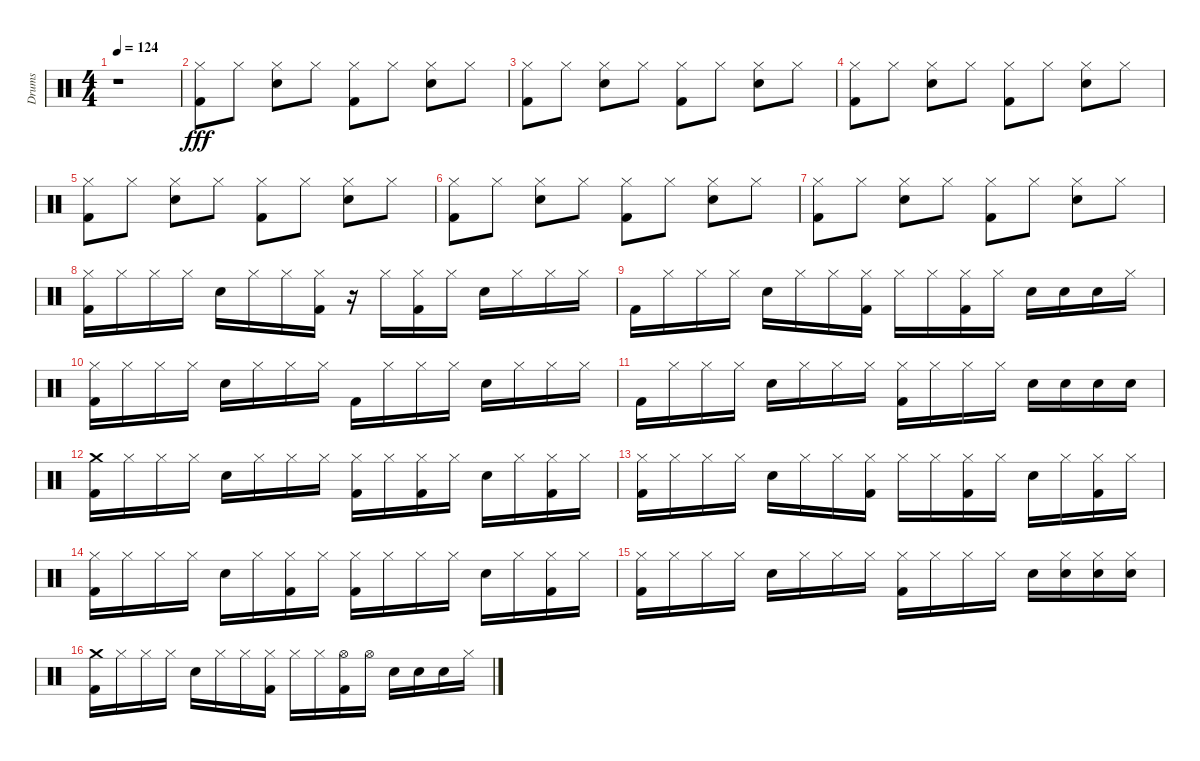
\track ("Drums" "Drums") {instrument percussion}
\staff {score}
\articulation defaults
\ts (4 4)
\tempo 124
\clef neutral
\ks c
r.1{dy fff} |
("Hi-Hat (closed)" "Kick (hit) 2").8 "Hi-Hat (closed)".8 ("Hi-Hat (closed)" "Snare (hit) 2").8 "Hi-Hat (closed)".8 ("Hi-Hat (closed)" "Kick (hit) 2").8 "Hi-Hat (closed)".8 ("Hi-Hat (closed)" "Snare (hit) 2").8 "Hi-Hat (closed)".8 |
("Hi-Hat (closed)" "Kick (hit) 2").8 "Hi-Hat (closed)".8 ("Hi-Hat (closed)" "Snare (hit) 2").8 "Hi-Hat (closed)".8 ("Hi-Hat (closed)" "Kick (hit) 2").8 "Hi-Hat (closed)".8 ("Hi-Hat (closed)" "Snare (hit) 2").8 "Hi-Hat (closed)".8 |
("Hi-Hat (closed)" "Kick (hit) 2").8 "Hi-Hat (closed)".8 ("Hi-Hat (closed)" "Snare (hit) 2").8 "Hi-Hat (closed)".8 ("Hi-Hat (closed)" "Kick (hit) 2").8 "Hi-Hat (closed)".8 ("Hi-Hat (closed)" "Snare (hit) 2").8 "Hi-Hat (closed)".8 |
("Hi-Hat (closed)" "Kick (hit) 2").8 "Hi-Hat (closed)".8 ("Hi-Hat (closed)" "Snare (hit) 2").8 "Hi-Hat (closed)".8 ("Hi-Hat (closed)" "Kick (hit) 2").8 "Hi-Hat (closed)".8 ("Hi-Hat (closed)" "Snare (hit) 2").8 "Hi-Hat (closed)".8 |
("Hi-Hat (closed)" "Kick (hit) 2").8 "Hi-Hat (closed)".8 ("Hi-Hat (closed)" "Snare (hit) 2").8 "Hi-Hat (closed)".8 ("Hi-Hat (closed)" "Kick (hit) 2").8 "Hi-Hat (closed)".8 ("Hi-Hat (closed)" "Snare (hit) 2").8 "Hi-Hat (closed)".8 |
("Hi-Hat (closed)" "Kick (hit) 2").8 "Hi-Hat (closed)".8 ("Hi-Hat (closed)" "Snare (hit) 2").8 "Hi-Hat (closed)".8 ("Hi-Hat (closed)" "Kick (hit) 2").8 "Hi-Hat (closed)".8 ("Hi-Hat (closed)" "Snare (hit) 2").8 "Hi-Hat (closed)".8 |
("Hi-Hat (closed)" "Kick (hit) 2").16 "Hi-Hat (closed)".16 "Hi-Hat (closed)".16 "Hi-Hat (closed)".16 "Snare (hit) 2".16 "Hi-Hat (closed)".16 "Hi-Hat (closed)".16 ("Hi-Hat (closed)" "Kick (hit) 2").16 r.16 "Hi-Hat (closed)".16 ("Hi-Hat (closed)" "Kick (hit) 2").16 "Hi-Hat (closed)".16 "Snare (hit) 2".16 "Hi-Hat (closed)".16 "Hi-Hat (closed)".16 "Hi-Hat (closed)".16 |
"Kick (hit) 2".16 "Hi-Hat (closed)".16 "Hi-Hat (closed)".16 "Hi-Hat (closed)".16 "Snare (hit) 2".16 "Hi-Hat (closed)".16 "Hi-Hat (closed)".16 ("Hi-Hat (closed)" "Kick (hit) 2").16 "Hi-Hat (closed)".16 "Hi-Hat (closed)".16 ("Hi-Hat (closed)" "Kick (hit) 2").16 "Hi-Hat (closed)".16 "Snare (hit) 2".16 "Snare (hit) 2".16 "Snare (hit) 2".16 "Hi-Hat (closed)".16 |
("Hi-Hat (closed)" "Kick (hit) 2").16 "Hi-Hat (closed)".16 "Hi-Hat (closed)".16 "Hi-Hat (closed)".16 "Snare (hit) 2".16 "Hi-Hat (closed)".16 "Hi-Hat (closed)".16 "Hi-Hat (closed)".16 "Kick (hit) 2".16 "Hi-Hat (closed)".16 "Hi-Hat (closed)".16 "Hi-Hat (closed)".16 "Snare (hit) 2".16 "Hi-Hat (closed)".16 "Hi-Hat (closed)".16 "Hi-Hat (closed)".16 |
"Kick (hit) 2".16 "Hi-Hat (closed)".16 "Hi-Hat (closed)".16 "Hi-Hat (closed)".16 "Snare (hit) 2".16 "Hi-Hat (closed)".16 "Hi-Hat (closed)".16 "Hi-Hat (closed)".16 ("Hi-Hat (closed)" "Kick (hit) 2").16 "Hi-Hat (closed)".16 "Hi-Hat (closed)".16 "Hi-Hat (closed)".16 "Snare (hit) 2".16 "Snare (hit) 2".16 "Snare (hit) 2".16 "Snare (hit) 2".16 |
("Crash medium (hit)" "Kick (hit) 2").16 "Hi-Hat (closed)".16 "Hi-Hat (closed)".16 "Hi-Hat (closed)".16 "Snare (hit) 2".16 "Hi-Hat (closed)".16 "Hi-Hat (closed)".16 "Hi-Hat (closed)".16 ("Hi-Hat (closed)" "Kick (hit) 2").16 "Hi-Hat (closed)".16 ("Hi-Hat (closed)" "Kick (hit) 2").16 "Hi-Hat (closed)".16 "Snare (hit) 2".16 "Hi-Hat (closed)".16 ("Hi-Hat (closed)" "Kick (hit) 2").16 "Hi-Hat (closed)".16 |
("Hi-Hat (closed)" "Kick (hit) 2").16 "Hi-Hat (closed)".16 "Hi-Hat (closed)".16 "Hi-Hat (closed)".16 "Snare (hit) 2".16 "Hi-Hat (closed)".16 "Hi-Hat (closed)".16 ("Hi-Hat (closed)" "Kick (hit) 2").16 "Hi-Hat (closed)".16 "Hi-Hat (closed)".16 ("Hi-Hat (closed)" "Kick (hit) 2").16 "Hi-Hat (closed)".16 "Snare (hit) 2".16 "Hi-Hat (closed)".16 ("Hi-Hat (closed)" "Kick (hit) 2").16 "Hi-Hat (closed)".16 |
("Hi-Hat (closed)" "Kick (hit) 2").16 "Hi-Hat (closed)".16 "Hi-Hat (closed)".16 "Hi-Hat (closed)".16 "Snare (hit) 2".16 "Hi-Hat (closed)".16 ("Hi-Hat (closed)" "Kick (hit) 2").16 "Hi-Hat (closed)".16 ("Hi-Hat (closed)" "Kick (hit) 2").16 "Hi-Hat (closed)".16 "Hi-Hat (closed)".16 "Hi-Hat (closed)".16 "Snare (hit) 2".16 "Hi-Hat (closed)".16 ("Hi-Hat (closed)" "Kick (hit) 2").16 "Hi-Hat (closed)".16 |
("Hi-Hat (closed)" "Kick (hit) 2").16 "Hi-Hat (closed)".16 "Hi-Hat (closed)".16 "Hi-Hat (closed)".16 "Snare (hit) 2".16 "Hi-Hat (closed)".16 "Hi-Hat (closed)".16 "Hi-Hat (closed)".16 ("Hi-Hat (closed)" "Kick (hit) 2").16 "Hi-Hat (closed)".16 "Hi-Hat (closed)".16 "Hi-Hat (closed)".16 "Snare (hit) 2".16 ("Hi-Hat (closed)" "Snare (hit) 2").16 ("Hi-Hat (closed)" "Snare (hit) 2").16 ("Hi-Hat (closed)" "Snare (hit) 2").16 |
("Crash medium (hit)" "Kick (hit) 2").16 "Hi-Hat (closed)".16 "Hi-Hat (closed)".16 "Hi-Hat (closed)".16 "Snare (hit) 2".16 "Hi-Hat (closed)".16 "Hi-Hat (closed)".16 ("Hi-Hat (closed)" "Kick (hit) 2").16 "Hi-Hat (closed)".16 "Hi-Hat (closed)".16 ("Hi-Hat (open)" "Kick (hit) 2").16 "Hi-Hat (open)".16 "Snare (hit) 2".16 "Snare (hit) 2".16 "Snare (hit) 2".16 "Hi-Hat (closed)".16
